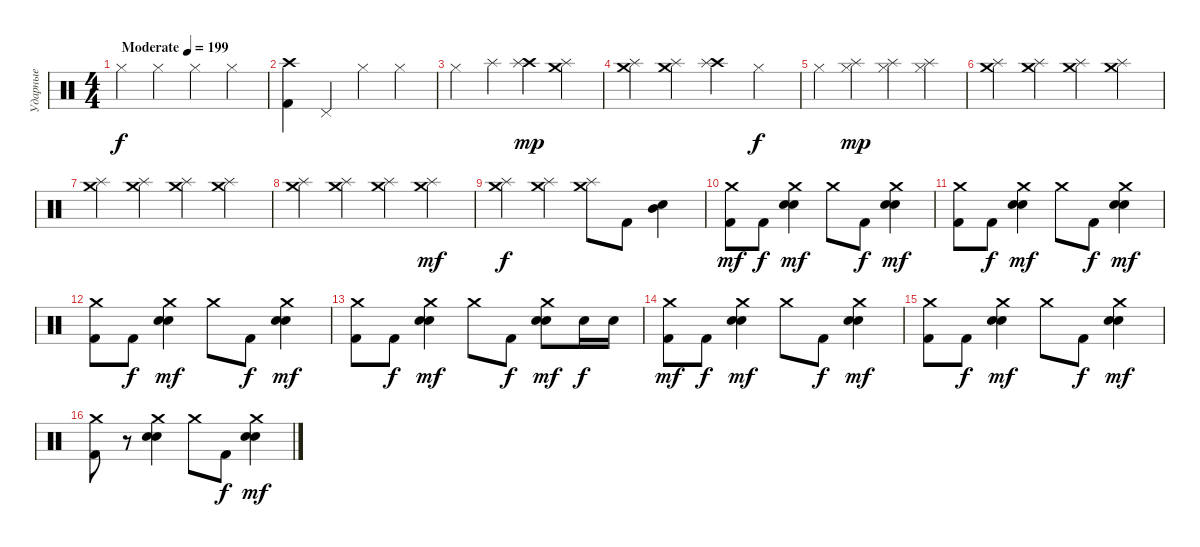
\track ("Ударные" "Ударные") {instrument percussion}
\staff {score}
\articulation defaults
\ts (4 4)
\tempo (199 "Moderate")
\clef neutral
\ks c "Hi-Hat (closed)".4{dy f} "Hi-Hat (closed)".4 "Hi-Hat (closed)".4 "Hi-Hat (closed)".4
|
("Crash high (hit)" "Kick (hit) 2").4 "Pedal Hi-Hat (hit)".4 "Hi-Hat (closed)".4 "Hi-Hat (closed)".4 |
"Hi-Hat (closed)".4 "Splash (hit)".4 ("Crash high (hit)" "Splash (hit)").4{dy mp} ("Crash medium (hit)" "Splash (hit)").4 |
("Crash medium (hit)" "Splash (hit)").4 ("Crash medium (hit)" "Splash (hit)").4 ("Crash high (hit)" "Splash (hit)").4 "Hi-Hat (closed)".4{dy f} |
"Hi-Hat (closed)".4 ("Splash (hit)" "Hi-Hat (closed)").4{dy mp} ("Splash (hit)" "Hi-Hat (closed)").4 ("Splash (hit)" "Hi-Hat (closed)").4 |
("Crash medium (hit)" "Splash (hit)").4 ("Crash medium (hit)" "Splash (hit)").4 ("Crash medium (hit)" "Splash (hit)").4 ("Crash medium (hit)" "Splash (hit)").4 |
("Crash medium (hit)" "Splash (hit)").4 ("Crash medium (hit)" "Splash (hit)").4 ("Crash medium (hit)" "Splash (hit)").4 ("Crash medium (hit)" "Splash (hit)").4 |
("Crash medium (hit)" "Splash (hit)").4 ("Crash medium (hit)" "Splash (hit)").4 ("Crash medium (hit)" "Splash (hit)").4 ("Crash medium (hit)" "Splash (hit)").4{dy mf} |
("Crash medium (hit)" "Splash (hit)").4{dy f} ("Crash medium (hit)" "Splash (hit)").4 ("Crash medium (hit)" "Splash (hit)").8 "Kick (hit) 2".8 ("Electric Snare (hit)" "Mid Tom (hit)").4 |
("Crash medium (hit)" "Kick (hit) 2").8{dy mf} "Kick (hit) 2".8{dy f} ("Crash medium (hit)" "Electric Snare (hit)" "Snare (hit) 2").4{dy mf} "Crash medium (hit)".8 "Kick (hit) 2".8{dy f} ("Crash medium (hit)" "Electric Snare (hit)" "Snare (hit) 2").4{dy mf} |
("Crash medium (hit)" "Kick (hit) 2").8 "Kick (hit) 2".8{dy f} ("Crash medium (hit)" "Electric Snare (hit)" "Snare (hit) 2").4{dy mf} "Crash medium (hit)".8 "Kick (hit) 2".8{dy f} ("Crash medium (hit)" "Electric Snare (hit)" "Snare (hit) 2").4{dy mf} |
("Crash medium (hit)" "Kick (hit) 2").8 "Kick (hit) 2".8{dy f} ("Crash medium (hit)" "Electric Snare (hit)" "Snare (hit) 2").4{dy mf} "Crash medium (hit)".8 "Kick (hit) 2".8{dy f} ("Crash medium (hit)" "Electric Snare (hit)" "Snare (hit) 2").4{dy mf} |
("Crash medium (hit)" "Kick (hit) 2").8 "Kick (hit) 2".8{dy f} ("Crash medium (hit)" "Electric Snare (hit)" "Snare (hit) 2").4{dy mf} "Crash medium (hit)".8 "Kick (hit) 2".8{dy f} ("Crash medium (hit)" "Electric Snare (hit)" "Snare (hit) 2").8{dy mf} "Electric Snare (hit)".16{dy f} "Electric Snare (hit)".16 |
("Crash medium (hit)" "Kick (hit) 2").8{dy mf} "Kick (hit) 2".8{dy f} ("Crash medium (hit)" "Electric Snare (hit)" "Snare (hit) 2").4{dy mf} "Crash medium (hit)".8 "Kick (hit) 2".8{dy f} ("Crash medium (hit)" "Electric Snare (hit)" "Snare (hit) 2").4{dy mf} |
("Crash medium (hit)" "Kick (hit) 2").8 "Kick (hit) 2".8{dy f} ("Crash medium (hit)" "Electric Snare (hit)" "Snare (hit) 2").4{dy mf} "Crash medium (hit)".8 "Kick (hit) 2".8{dy f} ("Crash medium (hit)" "Electric Snare (hit)" "Snare (hit) 2").4{dy mf} |
("Crash medium (hit)" "Kick (hit) 2").8 r.8 ("Crash medium (hit)" "Electric Snare (hit)" "Snare (hit) 2").4 "Crash medium (hit)".8 "Kick (hit) 2".8{dy f} ("Crash medium (hit)" "Electric Snare (hit)" "Snare (hit) 2").4{dy mf}
